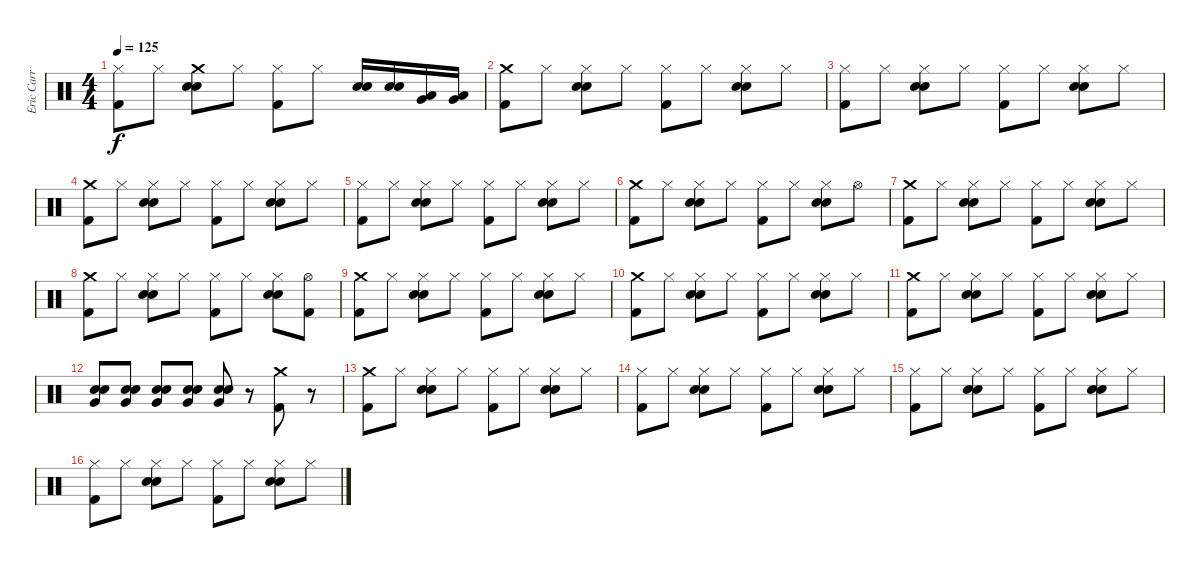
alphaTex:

\track ("Eric Carr" "Eric Carr") {instrument percussion}
\staff {score}
\articulation defaults
\ts (4 4)
\tempo 125
\clef neutral
\ks c
("Hi-Hat (closed)" "Kick (hit) 2").8{dy f} "Hi-Hat (closed)".8 ("Crash medium (hit)" "Electric Snare (hit)" "Snare (hit) 2").8 "Hi-Hat (closed)".8 ("Hi-Hat (closed)" "Kick (hit) 2").8 "Hi-Hat (closed)".8 ("Snare (hit) 2" "Electric Snare (hit)").16 ("Snare (hit) 2" "Electric Snare (hit)").16 ("Low Tom (hit)" "Very Low Tom (hit)").16 ("Low Tom (hit)" "Very Low Tom (hit)").16 |
("Crash medium (hit)" "Kick (hit) 2").8 "Hi-Hat (closed)".8 ("Hi-Hat (closed)" "Electric Snare (hit)" "Snare (hit) 2").8 "Hi-Hat (closed)".8 ("Hi-Hat (closed)" "Kick (hit) 2").8 "Hi-Hat (closed)".8 ("Hi-Hat (closed)" "Snare (hit) 2" "Electric Snare (hit)").8 "Hi-Hat (closed)".8 |
("Hi-Hat (closed)" "Kick (hit) 2").8 "Hi-Hat (closed)".8 ("Hi-Hat (closed)" "Electric Snare (hit)" "Snare (hit) 2").8 "Hi-Hat (closed)".8 ("Hi-Hat (closed)" "Kick (hit) 2").8 "Hi-Hat (closed)".8 ("Hi-Hat (closed)" "Snare (hit) 2" "Electric Snare (hit)").8 "Hi-Hat (closed)".8 |
("Crash medium (hit)" "Kick (hit) 2").8 "Hi-Hat (closed)".8 ("Hi-Hat (closed)" "Electric Snare (hit)" "Snare (hit) 2").8 "Hi-Hat (closed)".8 ("Hi-Hat (closed)" "Kick (hit) 2").8 "Hi-Hat (closed)".8 ("Hi-Hat (closed)" "Snare (hit) 2" "Electric Snare (hit)").8 "Hi-Hat (closed)".8 |
("Hi-Hat (closed)" "Kick (hit) 2").8 "Hi-Hat (closed)".8 ("Hi-Hat (closed)" "Electric Snare (hit)" "Snare (hit) 2").8 "Hi-Hat (closed)".8 ("Hi-Hat (closed)" "Kick (hit) 2").8 "Hi-Hat (closed)".8 ("Hi-Hat (closed)" "Snare (hit) 2" "Electric Snare (hit)").8 "Hi-Hat (closed)".8 |
("Crash medium (hit)" "Kick (hit) 2").8 "Hi-Hat (closed)".8 ("Hi-Hat (closed)" "Electric Snare (hit)" "Snare (hit) 2").8 "Hi-Hat (closed)".8 ("Hi-Hat (closed)" "Kick (hit) 2").8 "Hi-Hat (closed)".8 ("Hi-Hat (closed)" "Snare (hit) 2" "Electric Snare (hit)").8 "Hi-Hat (open)".8 |
("Crash medium (hit)" "Kick (hit) 2").8 "Hi-Hat (closed)".8 ("Hi-Hat (closed)" "Electric Snare (hit)" "Snare (hit) 2").8 "Hi-Hat (closed)".8 ("Hi-Hat (closed)" "Kick (hit) 2").8 "Hi-Hat (closed)".8 ("Hi-Hat (closed)" "Snare (hit) 2" "Electric Snare (hit)").8 "Hi-Hat (closed)".8 |
("Crash medium (hit)" "Kick (hit) 2").8 "Hi-Hat (closed)".8 ("Hi-Hat (closed)" "Electric Snare (hit)" "Snare (hit) 2").8 "Hi-Hat (closed)".8 ("Hi-Hat (closed)" "Kick (hit) 2").8 "Hi-Hat (closed)".8 ("Hi-Hat (closed)" "Snare (hit) 2" "Electric Snare (hit)").8 ("Kick (hit) 2" "Hi-Hat (open)").8 |
("Crash medium (hit)" "Kick (hit) 2").8 "Hi-Hat (closed)".8 ("Hi-Hat (closed)" "Electric Snare (hit)" "Snare (hit) 2").8 "Hi-Hat (closed)".8 ("Hi-Hat (closed)" "Kick (hit) 2").8 "Hi-Hat (closed)".8 ("Hi-Hat (closed)" "Snare (hit) 2" "Electric Snare (hit)").8 "Hi-Hat (closed)".8 |
("Crash medium (hit)" "Kick (hit) 2").8 "Hi-Hat (closed)".8 ("Hi-Hat (closed)" "Electric Snare (hit)" "Snare (hit) 2").8 "Hi-Hat (closed)".8 ("Hi-Hat (closed)" "Kick (hit) 2").8 "Hi-Hat (closed)".8 ("Hi-Hat (closed)" "Snare (hit) 2" "Electric Snare (hit)").8 "Hi-Hat (closed)".8 |
("Crash medium (hit)" "Kick (hit) 2").8 "Hi-Hat (closed)".8 ("Hi-Hat (closed)" "Electric Snare (hit)" "Snare (hit) 2").8 "Hi-Hat (closed)".8 ("Hi-Hat (closed)" "Kick (hit) 2").8 "Hi-Hat (closed)".8 ("Hi-Hat (closed)" "Snare (hit) 2" "Electric Snare (hit)").8 "Hi-Hat (closed)".8 |
("Very Low Tom (hit)" "Electric Snare (hit)" "Snare (hit) 2").8 ("Very Low Tom (hit)" "Electric Snare (hit)" "Snare (hit) 2").8 ("Very Low Tom (hit)" "Electric Snare (hit)" "Snare (hit) 2").8 ("Very Low Tom (hit)" "Electric Snare (hit)" "Snare (hit) 2").8 ("Very Low Tom (hit)" "Electric Snare (hit)" "Snare (hit) 2").8 r.8 ("Crash medium (hit)" "Kick (hit) 2").8 r.8 |
("Crash medium (hit)" "Kick (hit) 2").8 "Hi-Hat (closed)".8 ("Hi-Hat (closed)" "Electric Snare (hit)" "Snare (hit) 2").8 "Hi-Hat (closed)".8 ("Hi-Hat (closed)" "Kick (hit) 2").8 "Hi-Hat (closed)".8 ("Hi-Hat (closed)" "Snare (hit) 2" "Electric Snare (hit)").8 "Hi-Hat (closed)".8 |
("Hi-Hat (closed)" "Kick (hit) 2").8 "Hi-Hat (closed)".8 ("Hi-Hat (closed)" "Electric Snare (hit)" "Snare (hit) 2").8 "Hi-Hat (closed)".8 ("Hi-Hat (closed)" "Kick (hit) 2").8 "Hi-Hat (closed)".8 ("Hi-Hat (closed)" "Snare (hit) 2" "Electric Snare (hit)").8 "Hi-Hat (closed)".8 |
("Hi-Hat (closed)" "Kick (hit) 2").8 "Hi-Hat (closed)".8 ("Hi-Hat (closed)" "Electric Snare (hit)" "Snare (hit) 2").8 "Hi-Hat (closed)".8 ("Hi-Hat (closed)" "Kick (hit) 2").8 "Hi-Hat (closed)".8 ("Hi-Hat (closed)" "Snare (hit) 2" "Electric Snare (hit)").8 "Hi-Hat (closed)".8 |
("Hi-Hat (closed)" "Kick (hit) 2").8 "Hi-Hat (closed)".8 ("Hi-Hat (closed)" "Electric Snare (hit)" "Snare (hit) 2").8 "Hi-Hat (closed)".8 ("Hi-Hat (closed)" "Kick (hit) 2").8 "Hi-Hat (closed)".8 ("Hi-Hat (closed)" "Snare (hit) 2" "Electric Snare (hit)").8 "Hi-Hat (closed)".8
